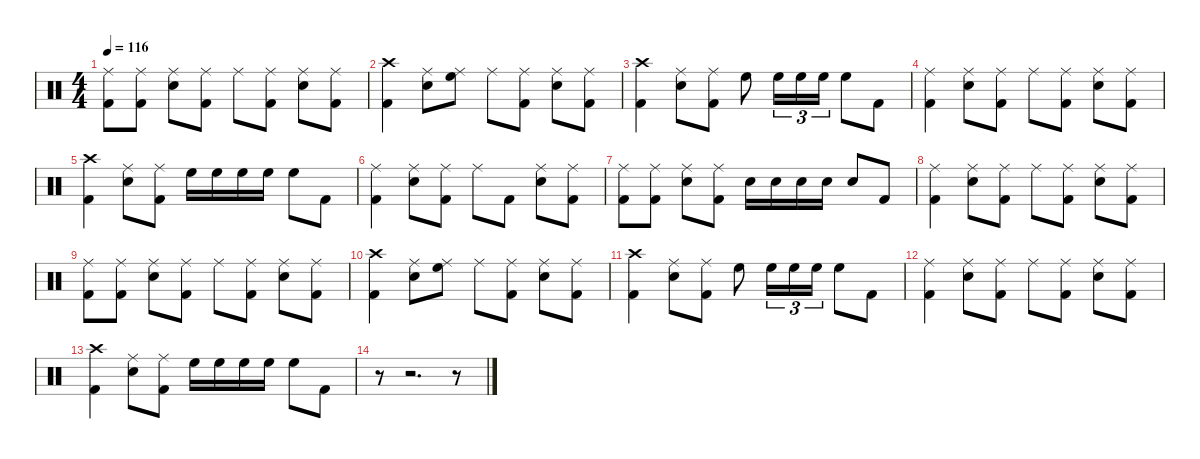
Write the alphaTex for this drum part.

\defaultSystemsLayout 4
\hideDynamics
\bracketExtendMode nobrackets
\singleTrackTrackNamePolicy hidden
\multiTrackTrackNamePolicy hidden
\firstSystemTrackNameMode fullname
\firstSystemTrackNameOrientation horizontal
\otherSystemsTrackNameOrientation horizontal
\track ("Drums" "drm.") {instrument percussion}
\staff {score}
\articulation defaults
\ts (4 4)
\tempo 116
\clef neutral
\ks c
("Ride (middle)" "Kick (hit) 2").8{dy f beam Down} ("Ride (middle)" "Kick (hit) 2").8{beam Down} ("Ride (middle)" "Snare (hit) 2").8{beam Down} ("Ride (middle)" "Kick (hit) 2").8{beam Down} "Ride (middle)".8{beam Down} ("Ride (middle)" "Kick (hit) 2").8{beam Down} ("Ride (middle)" "Snare (hit) 2").8{beam Down} ("Ride (middle)" "Kick (hit) 2").8{beam Down} |
("Crash high (hit)" "Kick (hit) 2").4{beam Down} ("Ride (middle)" "Snare (hit) 2").8{beam Down} ("Ride (middle)" "High Floor Tom (hit)").8{beam Down} "Ride (middle)".8{beam Down} ("Ride (middle)" "Kick (hit) 2").8{beam Down} ("Ride (middle)" "Snare (hit) 2").8{beam Down} ("Ride (middle)" "Kick (hit) 2").8{beam Down} |
("Crash high (hit)" "Kick (hit) 2").4{beam Down} ("Ride (middle)" "Snare (hit) 2").8{beam Down} ("Ride (middle)" "Kick (hit) 2").8{beam Down} "High Floor Tom (hit)".8{beam Down} "High Floor Tom (hit)".16{tu (3 2) beam Down} "High Floor Tom (hit)".16{tu (3 2) beam Down} "High Floor Tom (hit)".16{tu (3 2) beam Down} "High Floor Tom (hit)".8{beam Down} "Kick (hit) 2".8{beam Down} |
("Ride (middle)" "Kick (hit) 2").4{beam Down} ("Ride (middle)" "Snare (hit) 2").8{beam Down} ("Ride (middle)" "Kick (hit) 2").8{beam Down} "Ride (middle)".8{beam Down} ("Ride (middle)" "Kick (hit) 2").8{beam Down} ("Ride (middle)" "Snare (hit) 2").8{beam Down} ("Ride (middle)" "Kick (hit) 2").8{beam Down} |
("Crash high (hit)" "Kick (hit) 2").4{beam Down} ("Ride (middle)" "Snare (hit) 2").8{beam Down} ("Ride (middle)" "Kick (hit) 2").8{beam Down} "High Floor Tom (hit)".16{beam Down} "High Floor Tom (hit)".16{beam Down} "High Floor Tom (hit)".16{beam Down} "High Floor Tom (hit)".16{beam Down} "High Floor Tom (hit)".8{beam Down} "Kick (hit) 2".8{beam Down} |
("Ride (middle)" "Kick (hit) 2").4{beam Down} ("Ride (middle)" "Snare (hit) 2").8{beam Down} ("Ride (middle)" "Kick (hit) 2").8{beam Down} "Ride (middle)".8{beam Down} "Kick (hit) 2".8{beam Down} ("Ride (middle)" "Snare (hit) 2").8{beam Down} ("Ride (middle)" "Kick (hit) 2").8{beam Down} |
("Ride (middle)" "Kick (hit) 2").8{beam Down} ("Ride (middle)" "Kick (hit) 2").8{beam Down} ("Ride (middle)" "Snare (hit) 2").8{beam Down} ("Ride (middle)" "Kick (hit) 2").8{beam Down} "Snare (hit) 2".16{beam Down} "Snare (hit) 2".16{beam Down} "Snare (hit) 2".16{beam Down} "Snare (hit) 2".16{beam Down} "Snare (hit) 2".8{beam Up} "Kick (hit) 2".8{beam Up} |
("Ride (middle)" "Kick (hit) 2").4{beam Down} ("Ride (middle)" "Snare (hit) 2").8{beam Down} ("Ride (middle)" "Kick (hit) 2").8{beam Down} "Ride (middle)".8{beam Down} ("Ride (middle)" "Kick (hit) 2").8{beam Down} ("Ride (middle)" "Snare (hit) 2").8{beam Down} ("Ride (middle)" "Kick (hit) 2").8{beam Down} |
("Ride (middle)" "Kick (hit) 2").8{beam Down} ("Ride (middle)" "Kick (hit) 2").8{beam Down} ("Ride (middle)" "Snare (hit) 2").8{beam Down} ("Ride (middle)" "Kick (hit) 2").8{beam Down} "Ride (middle)".8{beam Down} ("Ride (middle)" "Kick (hit) 2").8{beam Down} ("Ride (middle)" "Snare (hit) 2").8{beam Down} ("Ride (middle)" "Kick (hit) 2").8{beam Down} |
("Crash high (hit)" "Kick (hit) 2").4{beam Down} ("Ride (middle)" "Snare (hit) 2").8{beam Down} ("Ride (middle)" "High Floor Tom (hit)").8{beam Down} "Ride (middle)".8{beam Down} ("Ride (middle)" "Kick (hit) 2").8{beam Down} ("Ride (middle)" "Snare (hit) 2").8{beam Down} ("Ride (middle)" "Kick (hit) 2").8{beam Down} |
("Crash high (hit)" "Kick (hit) 2").4{beam Down} ("Ride (middle)" "Snare (hit) 2").8{beam Down} ("Ride (middle)" "Kick (hit) 2").8{beam Down} "High Floor Tom (hit)".8{beam Down} "High Floor Tom (hit)".16{tu (3 2) beam Down} "High Floor Tom (hit)".16{tu (3 2) beam Down} "High Floor Tom (hit)".16{tu (3 2) beam Down} "High Floor Tom (hit)".8{beam Down} "Kick (hit) 2".8{beam Down} |
("Ride (middle)" "Kick (hit) 2").4{beam Down} ("Ride (middle)" "Snare (hit) 2").8{beam Down} ("Ride (middle)" "Kick (hit) 2").8{beam Down} "Ride (middle)".8{beam Down} ("Ride (middle)" "Kick (hit) 2").8{beam Down} ("Ride (middle)" "Snare (hit) 2").8{beam Down} ("Ride (middle)" "Kick (hit) 2").8{beam Down} |
("Crash high (hit)" "Kick (hit) 2").4{beam Down} ("Ride (middle)" "Snare (hit) 2").8{beam Down} ("Ride (middle)" "Kick (hit) 2").8{beam Down} "High Floor Tom (hit)".16{beam Down} "High Floor Tom (hit)".16{beam Down} "High Floor Tom (hit)".16{beam Down} "High Floor Tom (hit)".16{beam Down} "High Floor Tom (hit)".8{beam Down} "Kick (hit) 2".8{beam Down} |
r.8{beam Down} r.2{d beam Down} r.8{beam Down}
